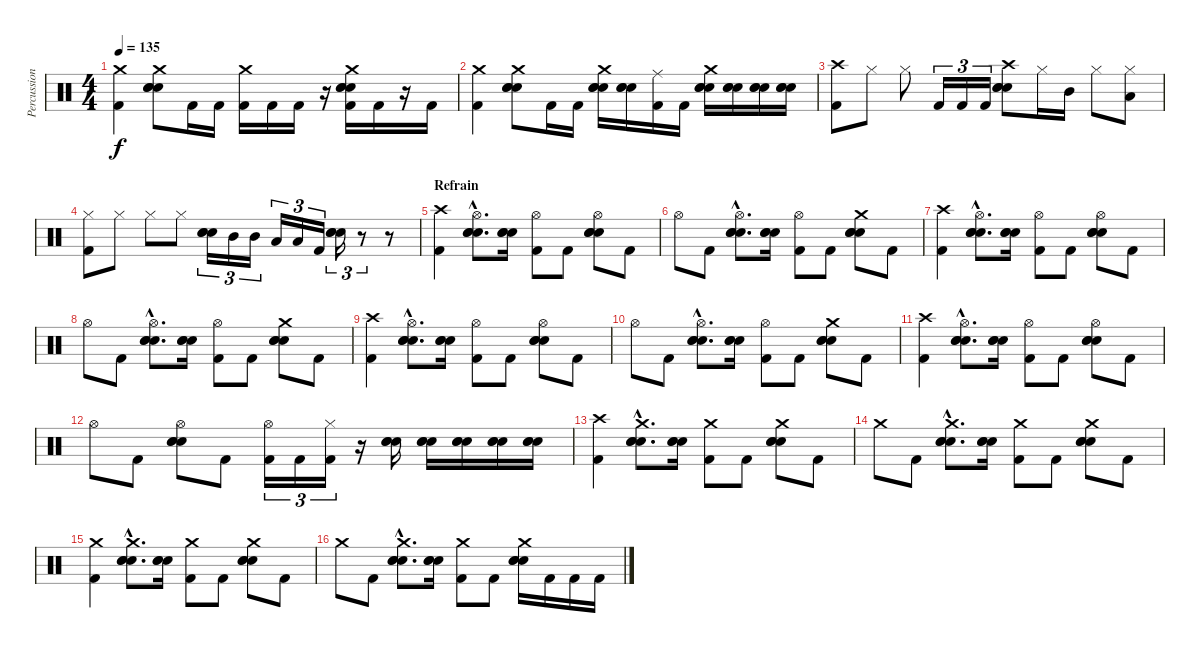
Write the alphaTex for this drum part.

\track ("Percussions" "Percussion") {instrument percussion}
\staff {score}
\articulation defaults
\ts (4 4)
\tempo 135
\clef neutral
\ks c
("Crash medium (hit)" "Kick (hit) 2").4{dy f} ("Crash medium (hit)" "Snare (hit) 2" "Electric Snare (hit)" "Electric Snare (hit)").8 "Kick (hit) 2".16 "Kick (hit) 2".16 ("Crash medium (hit)" "Kick (hit) 2").16 "Kick (hit) 2".16 "Kick (hit) 2".16 r.16 ("Crash medium (hit)" "Kick (hit) 2" "Snare (hit) 2" "Electric Snare (hit)" "Electric Snare (hit)").16 "Kick (hit) 2".16 r.16 "Kick (hit) 2".16 |
("Crash medium (hit)" "Kick (hit) 2").4 ("Crash medium (hit)" "Snare (hit) 2" "Electric Snare (hit)" "Electric Snare (hit)").8 "Kick (hit) 2".16 "Kick (hit) 2".16 ("Crash medium (hit)" "Snare (hit) 2" "Electric Snare (hit)" "Electric Snare (hit)").16 ("Snare (hit) 2" "Electric Snare (hit)" "Electric Snare (hit)").16 ("Ride (middle)" "Kick (hit) 2").16 "Kick (hit) 2".16 ("Crash medium (hit)" "Snare (hit) 2" "Electric Snare (hit)" "Electric Snare (hit)").16 ("Snare (hit) 2" "Electric Snare (hit)" "Electric Snare (hit)").16 ("Snare (hit) 2" "Electric Snare (hit)" "Electric Snare (hit)").16 ("Snare (hit) 2" "Electric Snare (hit)" "Electric Snare (hit)").16 |
("Crash high (hit)" "Kick (hit) 2").8 "Hi-Hat (closed)".8 "Hi-Hat (closed)".8 "Kick (hit) 2".16{tu (3 2)} "Kick (hit) 2".16{tu (3 2)} "Kick (hit) 2".16{tu (3 2)} ("Crash high (hit)" "Snare (hit) 2" "Electric Snare (hit)" "Electric Snare (hit)").8 "Hi-Hat (closed)".16 "Mid Tom (hit)".16 "Hi-Hat (closed)".8 ("Hi-Hat (closed)" "Low Tom (hit)").8 |
("Hi-Hat (closed)" "Kick (hit) 2").8 "Hi-Hat (closed)".8 "Hi-Hat (closed)".8 "Hi-Hat (closed)".8 ("Snare (hit) 2" "Electric Snare (hit)" "Electric Snare (hit)").16{tu (3 2)} "Mid Tom (hit)".16{tu (3 2)} "Mid Tom (hit)".16{tu (3 2)} "Low Tom (hit)".16{tu (3 2)} "Low Tom (hit)".16{tu (3 2)} "Kick (hit) 2".16{tu (3 2)} ("Snare (hit) 2" "Electric Snare (hit)" "Electric Snare (hit)").16{tu (3 2)} r.8{tu (3 2)} r.8 |
\section ("" "Refrain")
("Crash high (hit)" "Kick (hit) 2").4 ("Hi-Hat (open)"{hac} "Snare (hit) 2"{hac} "Electric Snare (hit)"{hac} "Electric Snare (hit)"{hac}).8{d} ("Snare (hit) 2" "Electric Snare (hit)" "Electric Snare (hit)").16 ("Hi-Hat (open)" "Kick (hit) 2").8 "Kick (hit) 2".8 ("Hi-Hat (open)" "Snare (hit) 2" "Electric Snare (hit)" "Electric Snare (hit)").8 "Kick (hit) 2".8 |
"Hi-Hat (open)".8 "Kick (hit) 2".8 ("Hi-Hat (open)"{hac} "Snare (hit) 2"{hac} "Electric Snare (hit)"{hac} "Electric Snare (hit)"{hac}).8{d} ("Snare (hit) 2" "Electric Snare (hit)" "Electric Snare (hit)").16 ("Hi-Hat (open)" "Kick (hit) 2").8 "Kick (hit) 2".8 ("Crash medium (hit)" "Snare (hit) 2" "Electric Snare (hit)" "Electric Snare (hit)").8 "Kick (hit) 2".8 |
("Crash high (hit)" "Kick (hit) 2").4 ("Hi-Hat (open)"{hac} "Snare (hit) 2"{hac} "Electric Snare (hit)"{hac} "Electric Snare (hit)"{hac}).8{d} ("Snare (hit) 2" "Electric Snare (hit)" "Electric Snare (hit)").16 ("Hi-Hat (open)" "Kick (hit) 2").8 "Kick (hit) 2".8 ("Hi-Hat (open)" "Snare (hit) 2" "Electric Snare (hit)" "Electric Snare (hit)").8 "Kick (hit) 2".8 |
"Hi-Hat (open)".8 "Kick (hit) 2".8 ("Hi-Hat (open)"{hac} "Snare (hit) 2"{hac} "Electric Snare (hit)"{hac} "Electric Snare (hit)"{hac}).8{d} ("Snare (hit) 2" "Electric Snare (hit)" "Electric Snare (hit)").16 ("Hi-Hat (open)" "Kick (hit) 2").8 "Kick (hit) 2".8 ("Crash medium (hit)" "Snare (hit) 2" "Electric Snare (hit)" "Electric Snare (hit)").8 "Kick (hit) 2".8 |
("Crash high (hit)" "Kick (hit) 2").4 ("Hi-Hat (open)"{hac} "Snare (hit) 2"{hac} "Electric Snare (hit)"{hac} "Electric Snare (hit)"{hac}).8{d} ("Snare (hit) 2" "Electric Snare (hit)" "Electric Snare (hit)").16 ("Hi-Hat (open)" "Kick (hit) 2").8 "Kick (hit) 2".8 ("Hi-Hat (open)" "Snare (hit) 2" "Electric Snare (hit)" "Electric Snare (hit)").8 "Kick (hit) 2".8 |
"Hi-Hat (open)".8 "Kick (hit) 2".8 ("Hi-Hat (open)"{hac} "Snare (hit) 2"{hac} "Electric Snare (hit)"{hac} "Electric Snare (hit)"{hac}).8{d} ("Snare (hit) 2" "Electric Snare (hit)" "Electric Snare (hit)").16 ("Hi-Hat (open)" "Kick (hit) 2").8 "Kick (hit) 2".8 ("Crash medium (hit)" "Snare (hit) 2" "Electric Snare (hit)" "Electric Snare (hit)").8 "Kick (hit) 2".8 |
("Crash high (hit)" "Kick (hit) 2").4 ("Hi-Hat (open)"{hac} "Snare (hit) 2"{hac} "Electric Snare (hit)"{hac} "Electric Snare (hit)"{hac}).8{d} ("Snare (hit) 2" "Electric Snare (hit)" "Electric Snare (hit)").16 ("Hi-Hat (open)" "Kick (hit) 2").8 "Kick (hit) 2".8 ("Hi-Hat (open)" "Snare (hit) 2" "Electric Snare (hit)" "Electric Snare (hit)").8 "Kick (hit) 2".8 |
"Hi-Hat (open)".8 "Kick (hit) 2".8 ("Hi-Hat (open)" "Snare (hit) 2" "Electric Snare (hit)" "Electric Snare (hit)").8 "Kick (hit) 2".8 ("Hi-Hat (open)" "Kick (hit) 2").16{tu (3 2)} "Kick (hit) 2".16{tu (3 2)} ("Hi-Hat (closed)" "Kick (hit) 2").16{tu (3 2)} r.16 ("Snare (hit) 2" "Electric Snare (hit)" "Electric Snare (hit)").16 ("Snare (hit) 2" "Electric Snare (hit)" "Electric Snare (hit)").16 ("Snare (hit) 2" "Electric Snare (hit)" "Electric Snare (hit)").16 ("Snare (hit) 2" "Electric Snare (hit)" "Electric Snare (hit)").16 ("Snare (hit) 2" "Electric Snare (hit)" "Electric Snare (hit)").16 |
("Crash high (hit)" "Kick (hit) 2").4 ("Crash medium (hit)"{hac} "Snare (hit) 2"{hac} "Electric Snare (hit)"{hac} "Electric Snare (hit)"{hac}).8{d} ("Snare (hit) 2" "Electric Snare (hit)" "Electric Snare (hit)").16 ("Crash medium (hit)" "Kick (hit) 2").8 "Kick (hit) 2".8 ("Crash medium (hit)" "Snare (hit) 2" "Electric Snare (hit)" "Electric Snare (hit)").8 "Kick (hit) 2".8 |
"Crash medium (hit)".8 "Kick (hit) 2".8 ("Crash medium (hit)"{hac} "Snare (hit) 2"{hac} "Electric Snare (hit)"{hac} "Electric Snare (hit)"{hac}).8{d} ("Snare (hit) 2" "Electric Snare (hit)" "Electric Snare (hit)").16 ("Crash medium (hit)" "Kick (hit) 2").8 "Kick (hit) 2".8 ("Crash medium (hit)" "Snare (hit) 2" "Electric Snare (hit)" "Electric Snare (hit)").8 "Kick (hit) 2".8 |
("Crash medium (hit)" "Kick (hit) 2").4 ("Crash medium (hit)"{hac} "Snare (hit) 2"{hac} "Electric Snare (hit)"{hac} "Electric Snare (hit)"{hac}).8{d} ("Snare (hit) 2" "Electric Snare (hit)" "Electric Snare (hit)").16 ("Crash medium (hit)" "Kick (hit) 2").8 "Kick (hit) 2".8 ("Crash medium (hit)" "Snare (hit) 2" "Electric Snare (hit)" "Electric Snare (hit)").8 "Kick (hit) 2".8 |
"Crash medium (hit)".8 "Kick (hit) 2".8 ("Crash medium (hit)"{hac} "Snare (hit) 2"{hac} "Electric Snare (hit)"{hac} "Electric Snare (hit)"{hac}).8{d} ("Snare (hit) 2" "Electric Snare (hit)" "Electric Snare (hit)").16 ("Crash medium (hit)" "Kick (hit) 2").8 "Kick (hit) 2".8 ("Crash medium (hit)" "Snare (hit) 2" "Electric Snare (hit)" "Electric Snare (hit)").16 "Kick (hit) 2".16 "Kick (hit) 2".16 "Kick (hit) 2".16
